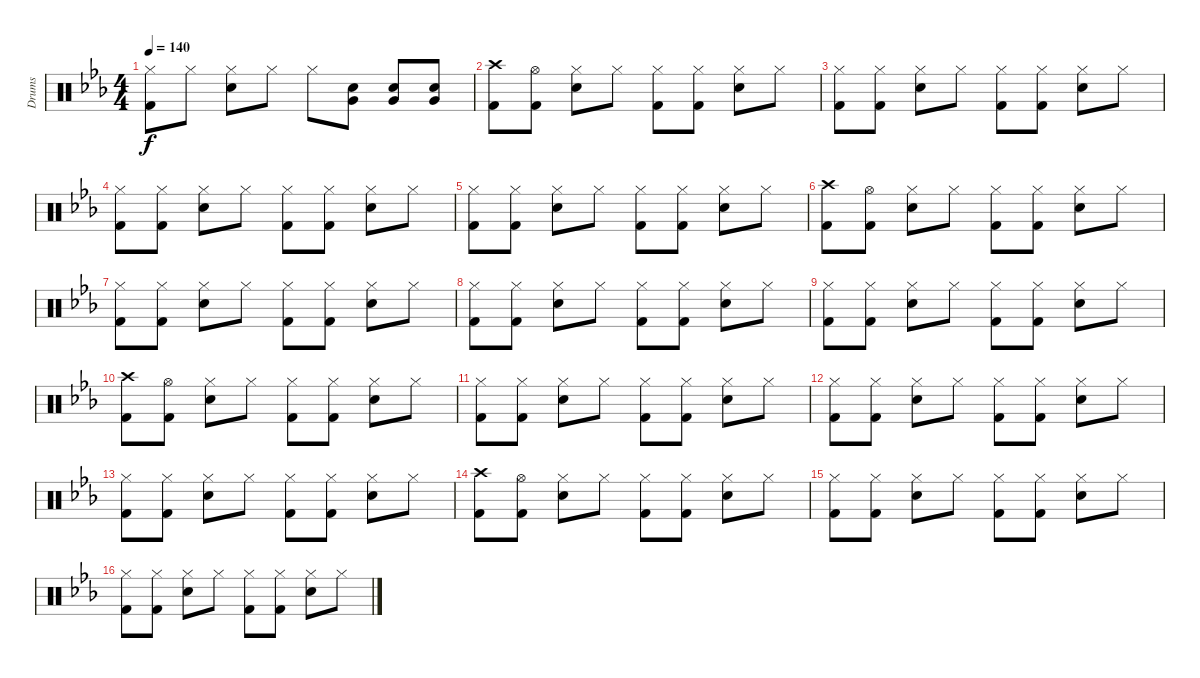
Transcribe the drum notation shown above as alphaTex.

\track ("Drums" "Drums") {instrument percussion}
\staff {score}
\articulation defaults
\ts (4 4)
\tempo 140
\clef neutral
\ks eb
("Hi-Hat (closed)" "Kick (hit) 2").8{dy f} "Hi-Hat (closed)".8 ("Hi-Hat (closed)" "Electric Snare (hit)").8 "Hi-Hat (closed)".8 "Hi-Hat (closed)".8 ("Electric Snare (hit)" "Very Low Tom (hit)").8 ("Electric Snare (hit)" "Very Low Tom (hit)").8 ("Electric Snare (hit)" "Very Low Tom (hit)").8 |
("Crash high (hit)" "Kick (hit) 2").8 ("Hi-Hat (open)" "Kick (hit) 2").8 ("Hi-Hat (closed)" "Electric Snare (hit)").8 "Hi-Hat (closed)".8 ("Hi-Hat (closed)" "Kick (hit) 2").8 ("Hi-Hat (closed)" "Kick (hit) 2").8 ("Hi-Hat (closed)" "Electric Snare (hit)").8 "Hi-Hat (closed)".8 |
("Hi-Hat (closed)" "Kick (hit) 2").8 ("Hi-Hat (closed)" "Kick (hit) 2").8 ("Hi-Hat (closed)" "Electric Snare (hit)").8 "Hi-Hat (closed)".8 ("Hi-Hat (closed)" "Kick (hit) 2").8 ("Hi-Hat (closed)" "Kick (hit) 2").8 ("Hi-Hat (closed)" "Electric Snare (hit)").8 "Hi-Hat (closed)".8 |
("Hi-Hat (closed)" "Kick (hit) 2").8 ("Hi-Hat (closed)" "Kick (hit) 2").8 ("Hi-Hat (closed)" "Electric Snare (hit)").8 "Hi-Hat (closed)".8 ("Hi-Hat (closed)" "Kick (hit) 2").8 ("Hi-Hat (closed)" "Kick (hit) 2").8 ("Hi-Hat (closed)" "Electric Snare (hit)").8 "Hi-Hat (closed)".8 |
("Hi-Hat (closed)" "Kick (hit) 2").8 ("Hi-Hat (closed)" "Kick (hit) 2").8 ("Hi-Hat (closed)" "Electric Snare (hit)").8 "Hi-Hat (closed)".8 ("Hi-Hat (closed)" "Kick (hit) 2").8 ("Hi-Hat (closed)" "Kick (hit) 2").8 ("Hi-Hat (closed)" "Electric Snare (hit)").8 "Hi-Hat (closed)".8 |
("Crash high (hit)" "Kick (hit) 2").8 ("Hi-Hat (open)" "Kick (hit) 2").8 ("Hi-Hat (closed)" "Electric Snare (hit)").8 "Hi-Hat (closed)".8 ("Hi-Hat (closed)" "Kick (hit) 2").8 ("Hi-Hat (closed)" "Kick (hit) 2").8 ("Hi-Hat (closed)" "Electric Snare (hit)").8 "Hi-Hat (closed)".8 |
("Hi-Hat (closed)" "Kick (hit) 2").8 ("Hi-Hat (closed)" "Kick (hit) 2").8 ("Hi-Hat (closed)" "Electric Snare (hit)").8 "Hi-Hat (closed)".8 ("Hi-Hat (closed)" "Kick (hit) 2").8 ("Hi-Hat (closed)" "Kick (hit) 2").8 ("Hi-Hat (closed)" "Electric Snare (hit)").8 "Hi-Hat (closed)".8 |
("Hi-Hat (closed)" "Kick (hit) 2").8 ("Hi-Hat (closed)" "Kick (hit) 2").8 ("Hi-Hat (closed)" "Electric Snare (hit)").8 "Hi-Hat (closed)".8 ("Hi-Hat (closed)" "Kick (hit) 2").8 ("Hi-Hat (closed)" "Kick (hit) 2").8 ("Hi-Hat (closed)" "Electric Snare (hit)").8 "Hi-Hat (closed)".8 |
("Hi-Hat (closed)" "Kick (hit) 2").8 ("Hi-Hat (closed)" "Kick (hit) 2").8 ("Hi-Hat (closed)" "Electric Snare (hit)").8 "Hi-Hat (closed)".8 ("Hi-Hat (closed)" "Kick (hit) 2").8 ("Hi-Hat (closed)" "Kick (hit) 2").8 ("Hi-Hat (closed)" "Electric Snare (hit)").8 "Hi-Hat (closed)".8 |
("Crash high (hit)" "Kick (hit) 2").8 ("Hi-Hat (open)" "Kick (hit) 2").8 ("Hi-Hat (closed)" "Electric Snare (hit)").8 "Hi-Hat (closed)".8 ("Hi-Hat (closed)" "Kick (hit) 2").8 ("Hi-Hat (closed)" "Kick (hit) 2").8 ("Hi-Hat (closed)" "Electric Snare (hit)").8 "Hi-Hat (closed)".8 |
("Hi-Hat (closed)" "Kick (hit) 2").8 ("Hi-Hat (closed)" "Kick (hit) 2").8 ("Hi-Hat (closed)" "Electric Snare (hit)").8 "Hi-Hat (closed)".8 ("Hi-Hat (closed)" "Kick (hit) 2").8 ("Hi-Hat (closed)" "Kick (hit) 2").8 ("Hi-Hat (closed)" "Electric Snare (hit)").8 "Hi-Hat (closed)".8 |
("Hi-Hat (closed)" "Kick (hit) 2").8 ("Hi-Hat (closed)" "Kick (hit) 2").8 ("Hi-Hat (closed)" "Electric Snare (hit)").8 "Hi-Hat (closed)".8 ("Hi-Hat (closed)" "Kick (hit) 2").8 ("Hi-Hat (closed)" "Kick (hit) 2").8 ("Hi-Hat (closed)" "Electric Snare (hit)").8 "Hi-Hat (closed)".8 |
("Hi-Hat (closed)" "Kick (hit) 2").8 ("Hi-Hat (closed)" "Kick (hit) 2").8 ("Hi-Hat (closed)" "Electric Snare (hit)").8 "Hi-Hat (closed)".8 ("Hi-Hat (closed)" "Kick (hit) 2").8 ("Hi-Hat (closed)" "Kick (hit) 2").8 ("Hi-Hat (closed)" "Electric Snare (hit)").8 "Hi-Hat (closed)".8 |
("Crash high (hit)" "Kick (hit) 2").8 ("Hi-Hat (open)" "Kick (hit) 2").8 ("Hi-Hat (closed)" "Electric Snare (hit)").8 "Hi-Hat (closed)".8 ("Hi-Hat (closed)" "Kick (hit) 2").8 ("Hi-Hat (closed)" "Kick (hit) 2").8 ("Hi-Hat (closed)" "Electric Snare (hit)").8 "Hi-Hat (closed)".8 |
("Hi-Hat (closed)" "Kick (hit) 2").8 ("Hi-Hat (closed)" "Kick (hit) 2").8 ("Hi-Hat (closed)" "Electric Snare (hit)").8 "Hi-Hat (closed)".8 ("Hi-Hat (closed)" "Kick (hit) 2").8 ("Hi-Hat (closed)" "Kick (hit) 2").8 ("Hi-Hat (closed)" "Electric Snare (hit)").8 "Hi-Hat (closed)".8 |
("Hi-Hat (closed)" "Kick (hit) 2").8 ("Hi-Hat (closed)" "Kick (hit) 2").8 ("Hi-Hat (closed)" "Electric Snare (hit)").8 "Hi-Hat (closed)".8 ("Hi-Hat (closed)" "Kick (hit) 2").8 ("Hi-Hat (closed)" "Kick (hit) 2").8 ("Hi-Hat (closed)" "Electric Snare (hit)").8 "Hi-Hat (closed)".8
